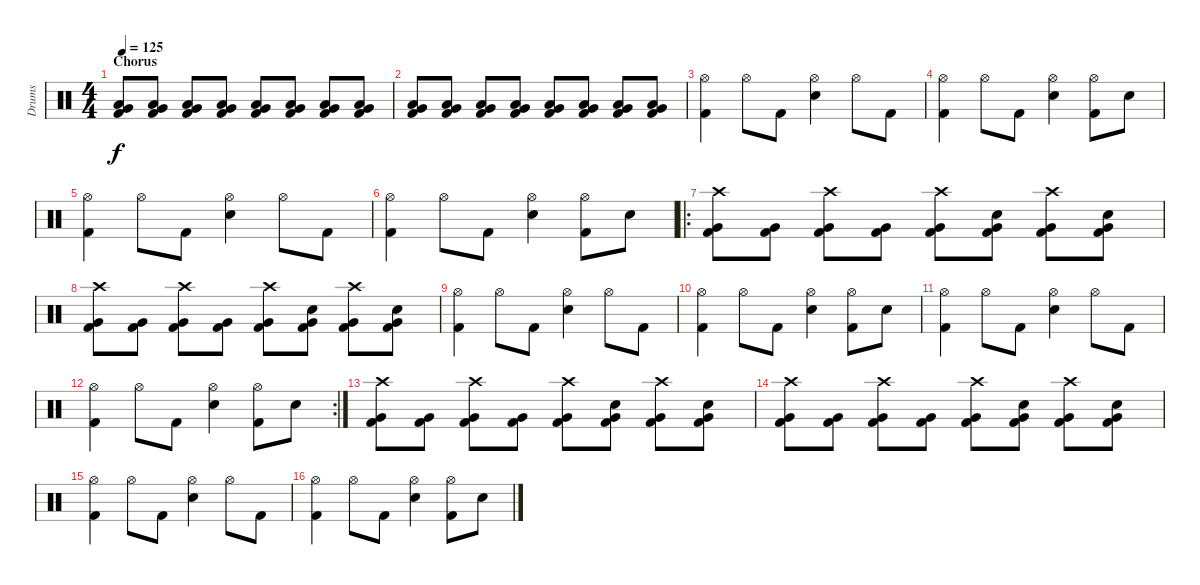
\track ("Drums" "Drums") {instrument percussion}
\staff {score}
\articulation defaults
\ts (4 4)
\section ("" "Chorus")
\tempo 125
\clef neutral
\ks c
("Very Low Tom (hit)" "Low Floor Tom (hit)" "Kick (hit) 2").8{dy f} ("Very Low Tom (hit)" "Low Floor Tom (hit)" "Kick (hit) 2").8 ("Very Low Tom (hit)" "Low Floor Tom (hit)" "Kick (hit) 2").8 ("Very Low Tom (hit)" "Low Floor Tom (hit)" "Kick (hit) 2").8 ("Very Low Tom (hit)" "Low Floor Tom (hit)" "Kick (hit) 2").8 ("Very Low Tom (hit)" "Low Floor Tom (hit)" "Kick (hit) 2").8 ("Very Low Tom (hit)" "Low Floor Tom (hit)" "Kick (hit) 2").8 ("Very Low Tom (hit)" "Low Floor Tom (hit)" "Kick (hit) 2").8 |
("Very Low Tom (hit)" "Low Floor Tom (hit)" "Kick (hit) 2").8 ("Very Low Tom (hit)" "Low Floor Tom (hit)" "Kick (hit) 2").8 ("Very Low Tom (hit)" "Low Floor Tom (hit)" "Kick (hit) 2").8 ("Very Low Tom (hit)" "Low Floor Tom (hit)" "Kick (hit) 2").8 ("Very Low Tom (hit)" "Low Floor Tom (hit)" "Kick (hit) 2").8 ("Very Low Tom (hit)" "Low Floor Tom (hit)" "Kick (hit) 2").8 ("Very Low Tom (hit)" "Low Floor Tom (hit)" "Kick (hit) 2").8 ("Very Low Tom (hit)" "Low Floor Tom (hit)" "Kick (hit) 2").8 |
("Hi-Hat (open)" "Kick (hit) 2").4 "Hi-Hat (open)".8 "Kick (hit) 2".8 ("Hi-Hat (open)" "Snare (hit) 2").4 "Hi-Hat (open)".8 "Kick (hit) 2".8 |
("Hi-Hat (open)" "Kick (hit) 2").4 "Hi-Hat (open)".8 "Kick (hit) 2".8 ("Hi-Hat (open)" "Snare (hit) 2").4 ("Hi-Hat (open)" "Kick (hit) 2").8 "Snare (hit) 2".8 |
("Hi-Hat (open)" "Kick (hit) 2").4 "Hi-Hat (open)".8 "Kick (hit) 2".8 ("Hi-Hat (open)" "Snare (hit) 2").4 "Hi-Hat (open)".8 "Kick (hit) 2".8 |
("Hi-Hat (open)" "Kick (hit) 2").4 "Hi-Hat (open)".8 "Kick (hit) 2".8 ("Hi-Hat (open)" "Snare (hit) 2").4 ("Hi-Hat (open)" "Kick (hit) 2").8 "Snare (hit) 2".8 |
\ro
("Crash high (hit)" "Very Low Tom (hit)" "Kick (hit) 2").8 ("Very Low Tom (hit)" "Kick (hit) 2").8 ("Crash high (hit)" "Very Low Tom (hit)" "Kick (hit) 2").8 ("Very Low Tom (hit)" "Kick (hit) 2").8 ("Crash high (hit)" "Very Low Tom (hit)" "Kick (hit) 2").8 ("Very Low Tom (hit)" "Snare (hit) 2" "Kick (hit) 2").8 ("Crash high (hit)" "Very Low Tom (hit)" "Kick (hit) 2").8 ("Very Low Tom (hit)" "Snare (hit) 2" "Kick (hit) 2").8 |
("Crash high (hit)" "Very Low Tom (hit)" "Kick (hit) 2").8 ("Very Low Tom (hit)" "Kick (hit) 2").8 ("Crash high (hit)" "Very Low Tom (hit)" "Kick (hit) 2").8 ("Very Low Tom (hit)" "Kick (hit) 2").8 ("Crash high (hit)" "Very Low Tom (hit)" "Kick (hit) 2").8 ("Very Low Tom (hit)" "Snare (hit) 2" "Kick (hit) 2").8 ("Crash high (hit)" "Very Low Tom (hit)" "Kick (hit) 2").8 ("Very Low Tom (hit)" "Snare (hit) 2" "Kick (hit) 2").8 |
("Hi-Hat (open)" "Kick (hit) 2").4 "Hi-Hat (open)".8 "Kick (hit) 2".8 ("Hi-Hat (open)" "Snare (hit) 2").4 "Hi-Hat (open)".8 "Kick (hit) 2".8 |
("Hi-Hat (open)" "Kick (hit) 2").4 "Hi-Hat (open)".8 "Kick (hit) 2".8 ("Hi-Hat (open)" "Snare (hit) 2").4 ("Hi-Hat (open)" "Kick (hit) 2").8 "Snare (hit) 2".8 |
("Hi-Hat (open)" "Kick (hit) 2").4 "Hi-Hat (open)".8 "Kick (hit) 2".8 ("Hi-Hat (open)" "Snare (hit) 2").4 "Hi-Hat (open)".8 "Kick (hit) 2".8 |
\rc 2
("Hi-Hat (open)" "Kick (hit) 2").4 "Hi-Hat (open)".8 "Kick (hit) 2".8 ("Hi-Hat (open)" "Snare (hit) 2").4 ("Hi-Hat (open)" "Kick (hit) 2").8 "Snare (hit) 2".8 |
("Crash high (hit)" "Very Low Tom (hit)" "Kick (hit) 2").8 ("Very Low Tom (hit)" "Kick (hit) 2").8 ("Crash high (hit)" "Very Low Tom (hit)" "Kick (hit) 2").8 ("Very Low Tom (hit)" "Kick (hit) 2").8 ("Crash high (hit)" "Very Low Tom (hit)" "Kick (hit) 2").8 ("Very Low Tom (hit)" "Snare (hit) 2" "Kick (hit) 2").8 ("Crash high (hit)" "Very Low Tom (hit)" "Kick (hit) 2").8 ("Very Low Tom (hit)" "Snare (hit) 2" "Kick (hit) 2").8 |
("Crash high (hit)" "Very Low Tom (hit)" "Kick (hit) 2").8 ("Very Low Tom (hit)" "Kick (hit) 2").8 ("Crash high (hit)" "Very Low Tom (hit)" "Kick (hit) 2").8 ("Very Low Tom (hit)" "Kick (hit) 2").8 ("Crash high (hit)" "Very Low Tom (hit)" "Kick (hit) 2").8 ("Very Low Tom (hit)" "Snare (hit) 2" "Kick (hit) 2").8 ("Crash high (hit)" "Very Low Tom (hit)" "Kick (hit) 2").8 ("Very Low Tom (hit)" "Snare (hit) 2" "Kick (hit) 2").8 |
("Hi-Hat (open)" "Kick (hit) 2").4 "Hi-Hat (open)".8 "Kick (hit) 2".8 ("Hi-Hat (open)" "Snare (hit) 2").4 "Hi-Hat (open)".8 "Kick (hit) 2".8 |
("Hi-Hat (open)" "Kick (hit) 2").4 "Hi-Hat (open)".8 "Kick (hit) 2".8 ("Hi-Hat (open)" "Snare (hit) 2").4 ("Hi-Hat (open)" "Kick (hit) 2").8 "Snare (hit) 2".8
